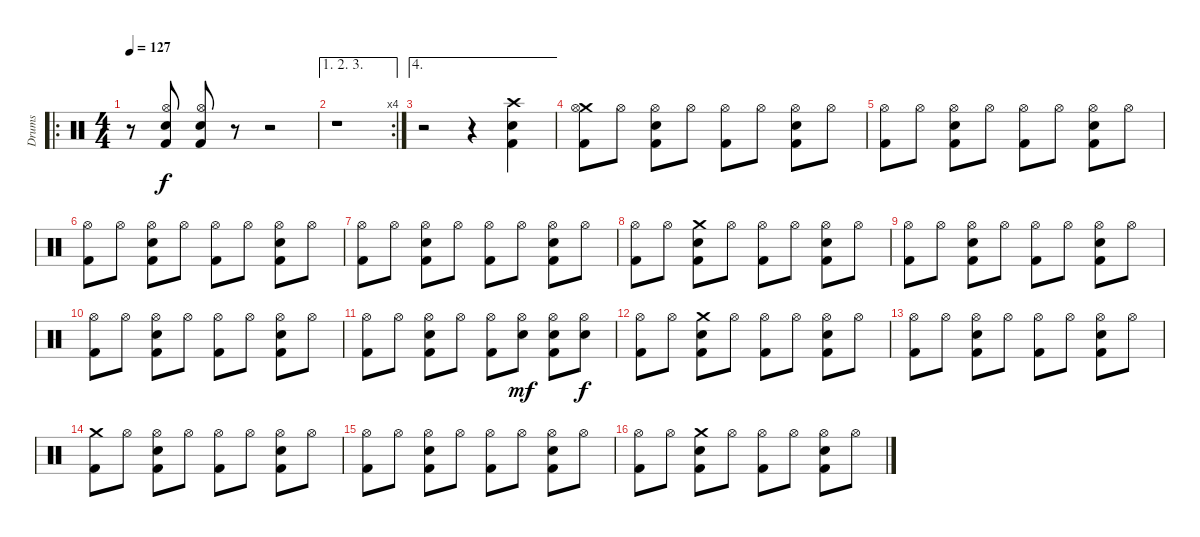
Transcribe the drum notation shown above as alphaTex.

\track ("Drums" "Drums") {instrument percussion}
\staff {score}
\articulation defaults
\ro
\ts (4 4)
\tempo 127
\clef neutral
\ks c
r.8{dy f} ("Kick (hit) 2" "Hi-Hat (open)" "Snare (hit) 2").8 ("Kick (hit) 2" "Hi-Hat (open)" "Snare (hit) 2").8 r.8 r.2 |
\ae (1 2 3)
\rc 4
r.1 |
\ae 4
r.2 r.4 ("Kick (hit) 2" "Crash high (hit)" "Snare (hit) 2").4 |
("Kick (hit) 2" "Crash medium (hit)" "Hi-Hat (open)").8 "Hi-Hat (open)".8 ("Kick (hit) 2" "Hi-Hat (open)" "Snare (hit) 2").8 "Hi-Hat (open)".8 ("Kick (hit) 2" "Hi-Hat (open)").8 "Hi-Hat (open)".8 ("Kick (hit) 2" "Hi-Hat (open)" "Snare (hit) 2").8 "Hi-Hat (open)".8 |
("Kick (hit) 2" "Hi-Hat (open)").8 "Hi-Hat (open)".8 ("Kick (hit) 2" "Hi-Hat (open)" "Snare (hit) 2").8 "Hi-Hat (open)".8 ("Kick (hit) 2" "Hi-Hat (open)").8 "Hi-Hat (open)".8 ("Kick (hit) 2" "Hi-Hat (open)" "Snare (hit) 2").8 "Hi-Hat (open)".8 |
("Kick (hit) 2" "Hi-Hat (open)").8 "Hi-Hat (open)".8 ("Kick (hit) 2" "Hi-Hat (open)" "Snare (hit) 2").8 "Hi-Hat (open)".8 ("Kick (hit) 2" "Hi-Hat (open)").8 "Hi-Hat (open)".8 ("Kick (hit) 2" "Hi-Hat (open)" "Snare (hit) 2").8 "Hi-Hat (open)".8 |
("Kick (hit) 2" "Hi-Hat (open)").8 "Hi-Hat (open)".8 ("Kick (hit) 2" "Hi-Hat (open)" "Snare (hit) 2").8 "Hi-Hat (open)".8 ("Kick (hit) 2" "Hi-Hat (open)").8 "Hi-Hat (open)".8 ("Kick (hit) 2" "Hi-Hat (open)" "Snare (hit) 2").8 "Hi-Hat (open)".8 |
("Kick (hit) 2" "Hi-Hat (open)").8 "Hi-Hat (open)".8 ("Kick (hit) 2" "Crash medium (hit)" "Snare (hit) 2").8 "Hi-Hat (open)".8 ("Kick (hit) 2" "Hi-Hat (open)").8 "Hi-Hat (open)".8 ("Kick (hit) 2" "Hi-Hat (open)" "Snare (hit) 2").8 "Hi-Hat (open)".8 |
("Kick (hit) 2" "Hi-Hat (open)").8 "Hi-Hat (open)".8 ("Kick (hit) 2" "Hi-Hat (open)" "Snare (hit) 2").8 "Hi-Hat (open)".8 ("Kick (hit) 2" "Hi-Hat (open)").8 "Hi-Hat (open)".8 ("Kick (hit) 2" "Hi-Hat (open)" "Snare (hit) 2").8 "Hi-Hat (open)".8 |
("Kick (hit) 2" "Hi-Hat (open)").8 "Hi-Hat (open)".8 ("Kick (hit) 2" "Hi-Hat (open)" "Snare (hit) 2").8 "Hi-Hat (open)".8 ("Kick (hit) 2" "Hi-Hat (open)").8 "Hi-Hat (open)".8 ("Kick (hit) 2" "Hi-Hat (open)" "Snare (hit) 2").8 "Hi-Hat (open)".8 |
("Kick (hit) 2" "Hi-Hat (open)").8 "Hi-Hat (open)".8 ("Kick (hit) 2" "Hi-Hat (open)" "Snare (hit) 2").8 "Hi-Hat (open)".8 ("Kick (hit) 2" "Hi-Hat (open)").8 ("Hi-Hat (open)" "Snare (hit) 2").8{dy mf} ("Kick (hit) 2" "Hi-Hat (open)" "Snare (hit) 2").8 ("Hi-Hat (open)" "Snare (hit) 2").8{dy f} |
("Kick (hit) 2" "Hi-Hat (open)").8 "Hi-Hat (open)".8 ("Kick (hit) 2" "Crash medium (hit)" "Snare (hit) 2").8 "Hi-Hat (open)".8 ("Kick (hit) 2" "Hi-Hat (open)").8 "Hi-Hat (open)".8 ("Kick (hit) 2" "Hi-Hat (open)" "Snare (hit) 2").8 "Hi-Hat (open)".8 |
("Kick (hit) 2" "Hi-Hat (open)").8 "Hi-Hat (open)".8 ("Kick (hit) 2" "Hi-Hat (open)" "Snare (hit) 2").8 "Hi-Hat (open)".8 ("Kick (hit) 2" "Hi-Hat (open)").8 "Hi-Hat (open)".8 ("Kick (hit) 2" "Hi-Hat (open)" "Snare (hit) 2").8 "Hi-Hat (open)".8 |
("Kick (hit) 2" "Crash medium (hit)").8 "Hi-Hat (open)".8 ("Kick (hit) 2" "Hi-Hat (open)" "Snare (hit) 2").8 "Hi-Hat (open)".8 ("Kick (hit) 2" "Hi-Hat (open)").8 "Hi-Hat (open)".8 ("Kick (hit) 2" "Hi-Hat (open)" "Snare (hit) 2").8 "Hi-Hat (open)".8 |
("Kick (hit) 2" "Hi-Hat (open)").8 "Hi-Hat (open)".8 ("Kick (hit) 2" "Hi-Hat (open)" "Snare (hit) 2").8 "Hi-Hat (open)".8 ("Kick (hit) 2" "Hi-Hat (open)").8 "Hi-Hat (open)".8 ("Kick (hit) 2" "Hi-Hat (open)" "Snare (hit) 2").8 "Hi-Hat (open)".8 |
("Kick (hit) 2" "Hi-Hat (open)").8 "Hi-Hat (open)".8 ("Kick (hit) 2" "Crash medium (hit)" "Snare (hit) 2").8 "Hi-Hat (open)".8 ("Kick (hit) 2" "Hi-Hat (open)").8 "Hi-Hat (open)".8 ("Kick (hit) 2" "Hi-Hat (open)" "Snare (hit) 2").8 "Hi-Hat (open)".8
